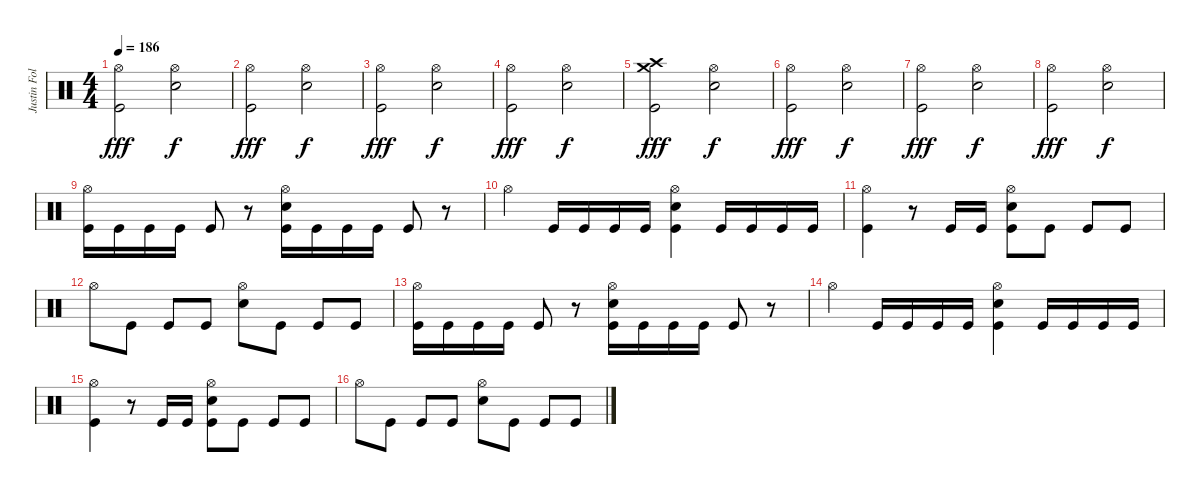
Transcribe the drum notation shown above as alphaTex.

\track ("Justin Foley" "Justin Fol") {instrument percussion}
\staff {score}
\articulation defaults
\ts (4 4)
\tempo 186
\clef neutral
\ks c
("Hi-Hat (open)" "Kick (hit)").2{dy fff} ("Hi-Hat (open)" "Electric Snare (hit)").2{dy f} |
("Hi-Hat (open)" "Kick (hit)").2{dy fff} ("Hi-Hat (open)" "Electric Snare (hit)").2{dy f} |
("Hi-Hat (open)" "Kick (hit)").2{dy fff} ("Hi-Hat (open)" "Electric Snare (hit)").2{dy f} |
("Hi-Hat (open)" "Kick (hit)").2{dy fff} ("Hi-Hat (open)" "Electric Snare (hit)").2{dy f} |
("Crash medium (hit)" "Crash high (hit)" "Kick (hit)").2{dy fff} ("Hi-Hat (open)" "Electric Snare (hit)").2{dy f} |
("Hi-Hat (open)" "Kick (hit)").2{dy fff} ("Hi-Hat (open)" "Electric Snare (hit)").2{dy f} |
("Hi-Hat (open)" "Kick (hit)").2{dy fff} ("Hi-Hat (open)" "Electric Snare (hit)").2{dy f} |
("Hi-Hat (open)" "Kick (hit)").2{dy fff} ("Hi-Hat (open)" "Electric Snare (hit)").2{dy f} |
("Hi-Hat (open)" "Kick (hit)").16 "Kick (hit)".16 "Kick (hit)".16 "Kick (hit)".16 "Kick (hit)".8 r.8 ("Hi-Hat (open)" "Electric Snare (hit)" "Kick (hit)").16 "Kick (hit)".16 "Kick (hit)".16 "Kick (hit)".16 "Kick (hit)".8 r.8 |
"Hi-Hat (open)".4 "Kick (hit)".16 "Kick (hit)".16 "Kick (hit)".16 "Kick (hit)".16 ("Hi-Hat (open)" "Electric Snare (hit)" "Kick (hit)").4 "Kick (hit)".16 "Kick (hit)".16 "Kick (hit)".16 "Kick (hit)".16 |
("Hi-Hat (open)" "Kick (hit)").4 r.8 "Kick (hit)".16 "Kick (hit)".16 ("Hi-Hat (open)" "Electric Snare (hit)" "Kick (hit)").8 "Kick (hit)".8 "Kick (hit)".8 "Kick (hit)".8 |
"Hi-Hat (open)".8 "Kick (hit)".8 "Kick (hit)".8 "Kick (hit)".8 ("Hi-Hat (open)" "Electric Snare (hit)").8 "Kick (hit)".8 "Kick (hit)".8 "Kick (hit)".8 |
("Hi-Hat (open)" "Kick (hit)").16 "Kick (hit)".16 "Kick (hit)".16 "Kick (hit)".16 "Kick (hit)".8 r.8 ("Hi-Hat (open)" "Electric Snare (hit)" "Kick (hit)").16 "Kick (hit)".16 "Kick (hit)".16 "Kick (hit)".16 "Kick (hit)".8 r.8 |
"Hi-Hat (open)".4 "Kick (hit)".16 "Kick (hit)".16 "Kick (hit)".16 "Kick (hit)".16 ("Hi-Hat (open)" "Electric Snare (hit)" "Kick (hit)").4 "Kick (hit)".16 "Kick (hit)".16 "Kick (hit)".16 "Kick (hit)".16 |
("Hi-Hat (open)" "Kick (hit)").4 r.8 "Kick (hit)".16 "Kick (hit)".16 ("Hi-Hat (open)" "Electric Snare (hit)" "Kick (hit)").8 "Kick (hit)".8 "Kick (hit)".8 "Kick (hit)".8 |
"Hi-Hat (open)".8 "Kick (hit)".8 "Kick (hit)".8 "Kick (hit)".8 ("Hi-Hat (open)" "Electric Snare (hit)").8 "Kick (hit)".8 "Kick (hit)".8 "Kick (hit)".8
